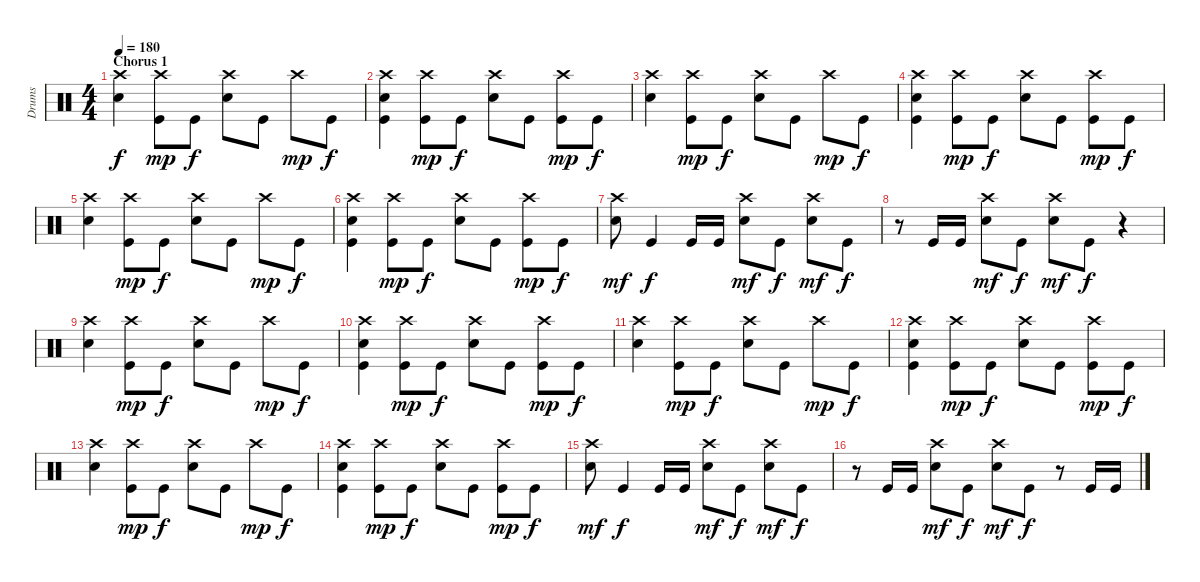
\track ("Drums" "Drums") {instrument percussion}
\staff {score}
\articulation defaults
\ts (4 4)
\section ("" "Chorus 1")
\tempo 180
\clef neutral
\ks c
("Crash high (hit)" "Snare (hit) 2").4{dy f} ("Crash high (hit)" "Kick (hit)").8{dy mp} "Kick (hit)".8{dy f} ("Snare (hit) 2" "Crash high (hit)").8 "Kick (hit)".8 "Crash high (hit)".8{dy mp} "Kick (hit)".8{dy f} |
("Snare (hit) 2" "Crash high (hit)" "Kick (hit)").4 ("Crash high (hit)" "Kick (hit)").8{dy mp} "Kick (hit)".8{dy f} ("Crash high (hit)" "Snare (hit) 2").8 "Kick (hit)".8 ("Crash high (hit)" "Kick (hit)").8{dy mp} "Kick (hit)".8{dy f} |
("Crash high (hit)" "Snare (hit) 2").4 ("Crash high (hit)" "Kick (hit)").8{dy mp} "Kick (hit)".8{dy f} ("Snare (hit) 2" "Crash high (hit)").8 "Kick (hit)".8 "Crash high (hit)".8{dy mp} "Kick (hit)".8{dy f} |
("Snare (hit) 2" "Crash high (hit)" "Kick (hit)").4 ("Crash high (hit)" "Kick (hit)").8{dy mp} "Kick (hit)".8{dy f} ("Crash high (hit)" "Snare (hit) 2").8 "Kick (hit)".8 ("Crash high (hit)" "Kick (hit)").8{dy mp} "Kick (hit)".8{dy f} |
("Crash high (hit)" "Snare (hit) 2").4 ("Crash high (hit)" "Kick (hit)").8{dy mp} "Kick (hit)".8{dy f} ("Snare (hit) 2" "Crash high (hit)").8 "Kick (hit)".8 "Crash high (hit)".8{dy mp} "Kick (hit)".8{dy f} |
("Snare (hit) 2" "Crash high (hit)" "Kick (hit)").4 ("Crash high (hit)" "Kick (hit)").8{dy mp} "Kick (hit)".8{dy f} ("Crash high (hit)" "Snare (hit) 2").8 "Kick (hit)".8 ("Crash high (hit)" "Kick (hit)").8{dy mp} "Kick (hit)".8{dy f} |
("Crash high (hit)" "Snare (hit) 2").8{dy mf} "Kick (hit)".4{dy f} "Kick (hit)".16 "Kick (hit)".16 ("Crash high (hit)" "Snare (hit) 2").8{dy mf} "Kick (hit)".8{dy f} ("Crash high (hit)" "Snare (hit) 2").8{dy mf} "Kick (hit)".8{dy f} |
r.8 "Kick (hit)".16 "Kick (hit)".16 ("Crash high (hit)" "Snare (hit) 2").8{dy mf} "Kick (hit)".8{dy f} ("Crash high (hit)" "Snare (hit) 2").8{dy mf} "Kick (hit)".8{dy f} r.4 |
("Crash high (hit)" "Snare (hit) 2").4 ("Crash high (hit)" "Kick (hit)").8{dy mp} "Kick (hit)".8{dy f} ("Snare (hit) 2" "Crash high (hit)").8 "Kick (hit)".8 "Crash high (hit)".8{dy mp} "Kick (hit)".8{dy f} |
("Snare (hit) 2" "Crash high (hit)" "Kick (hit)").4 ("Crash high (hit)" "Kick (hit)").8{dy mp} "Kick (hit)".8{dy f} ("Crash high (hit)" "Snare (hit) 2").8 "Kick (hit)".8 ("Crash high (hit)" "Kick (hit)").8{dy mp} "Kick (hit)".8{dy f} |
("Crash high (hit)" "Snare (hit) 2").4 ("Crash high (hit)" "Kick (hit)").8{dy mp} "Kick (hit)".8{dy f} ("Snare (hit) 2" "Crash high (hit)").8 "Kick (hit)".8 "Crash high (hit)".8{dy mp} "Kick (hit)".8{dy f} |
("Snare (hit) 2" "Crash high (hit)" "Kick (hit)").4 ("Crash high (hit)" "Kick (hit)").8{dy mp} "Kick (hit)".8{dy f} ("Crash high (hit)" "Snare (hit) 2").8 "Kick (hit)".8 ("Crash high (hit)" "Kick (hit)").8{dy mp} "Kick (hit)".8{dy f} |
("Crash high (hit)" "Snare (hit) 2").4 ("Crash high (hit)" "Kick (hit)").8{dy mp} "Kick (hit)".8{dy f} ("Snare (hit) 2" "Crash high (hit)").8 "Kick (hit)".8 "Crash high (hit)".8{dy mp} "Kick (hit)".8{dy f} |
("Snare (hit) 2" "Crash high (hit)" "Kick (hit)").4 ("Crash high (hit)" "Kick (hit)").8{dy mp} "Kick (hit)".8{dy f} ("Crash high (hit)" "Snare (hit) 2").8 "Kick (hit)".8 ("Crash high (hit)" "Kick (hit)").8{dy mp} "Kick (hit)".8{dy f} |
("Crash high (hit)" "Snare (hit) 2").8{dy mf} "Kick (hit)".4{dy f} "Kick (hit)".16 "Kick (hit)".16 ("Crash high (hit)" "Snare (hit) 2").8{dy mf} "Kick (hit)".8{dy f} ("Crash high (hit)" "Snare (hit) 2").8{dy mf} "Kick (hit)".8{dy f} |
r.8 "Kick (hit)".16 "Kick (hit)".16 ("Crash high (hit)" "Snare (hit) 2").8{dy mf} "Kick (hit)".8{dy f} ("Crash high (hit)" "Snare (hit) 2").8{dy mf} "Kick (hit)".8{dy f} r.8 "Kick (hit)".16 "Kick (hit)".16
